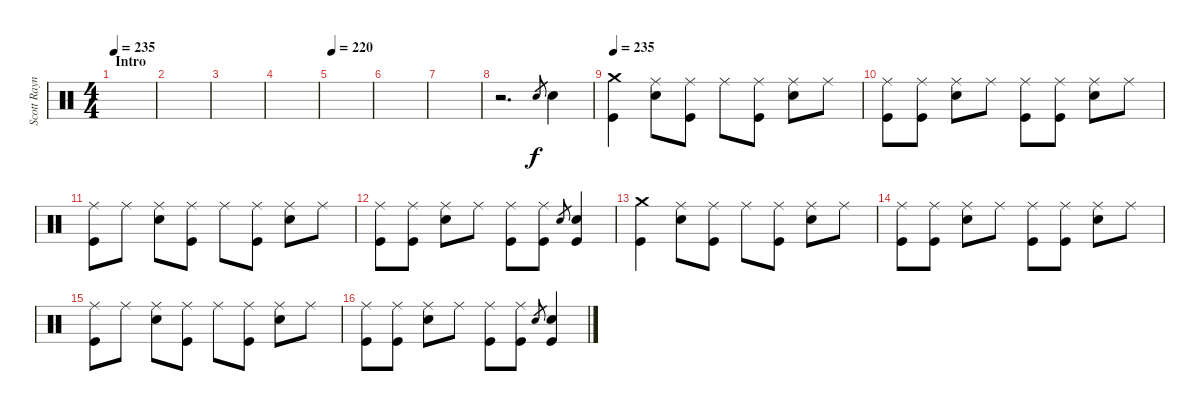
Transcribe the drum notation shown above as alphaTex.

\track ("Scott Raynor - Drums/Bateria" "Scott Rayn") {instrument percussion}
\staff {score}
\articulation defaults
\ts (4 4)
\section ("" "Intro")
\tempo 235
\tempo 220
\tempo 235
\clef neutral
\ks c
|
|
|
|
\tempo 220
|
|
|
r.2{d} "Snare (hit) 2"{sl}.8{gr} "Electric Snare (hit)".4 |
\tempo 235
("Crash medium (hit)" "Kick (hit)").4 ("Ride (middle)" "Electric Snare (hit)").8 ("Ride (middle)" "Kick (hit)").8 "Ride (middle)".8 ("Ride (middle)" "Kick (hit)").8 ("Ride (middle)" "Electric Snare (hit)").8 "Ride (middle)".8 |
("Ride (middle)" "Kick (hit)").8 ("Ride (middle)" "Kick (hit)").8 ("Ride (middle)" "Electric Snare (hit)").8 "Ride (middle)".8 ("Ride (middle)" "Kick (hit)").8 ("Ride (middle)" "Kick (hit)").8 ("Ride (middle)" "Electric Snare (hit)").8 "Ride (middle)".8 |
("Ride (middle)" "Kick (hit)").8 "Ride (middle)".8 ("Ride (middle)" "Electric Snare (hit)").8 ("Ride (middle)" "Kick (hit)").8 "Ride (middle)".8 ("Ride (middle)" "Kick (hit)").8 ("Ride (middle)" "Electric Snare (hit)").8 "Ride (middle)".8 |
("Ride (middle)" "Kick (hit)").8 ("Ride (middle)" "Kick (hit)").8 ("Ride (middle)" "Electric Snare (hit)").8 "Ride (middle)".8 ("Ride (middle)" "Kick (hit)").8 ("Ride (middle)" "Kick (hit)").8 "Electric Snare (hit)".8{gr} ("Electric Snare (hit)" "Kick (hit)").4 |
("Crash medium (hit)" "Kick (hit)").4 ("Ride (middle)" "Electric Snare (hit)").8 ("Ride (middle)" "Kick (hit)").8 "Ride (middle)".8 ("Ride (middle)" "Kick (hit)").8 ("Ride (middle)" "Electric Snare (hit)").8 "Ride (middle)".8 |
("Ride (middle)" "Kick (hit)").8 ("Ride (middle)" "Kick (hit)").8 ("Ride (middle)" "Electric Snare (hit)").8 "Ride (middle)".8 ("Ride (middle)" "Kick (hit)").8 ("Ride (middle)" "Kick (hit)").8 ("Ride (middle)" "Electric Snare (hit)").8 "Ride (middle)".8 |
("Ride (middle)" "Kick (hit)").8 "Ride (middle)".8 ("Ride (middle)" "Electric Snare (hit)").8 ("Ride (middle)" "Kick (hit)").8 "Ride (middle)".8 ("Ride (middle)" "Kick (hit)").8 ("Ride (middle)" "Electric Snare (hit)").8 "Ride (middle)".8 |
("Ride (middle)" "Kick (hit)").8 ("Ride (middle)" "Kick (hit)").8 ("Ride (middle)" "Electric Snare (hit)").8 "Ride (middle)".8 ("Ride (middle)" "Kick (hit)").8 ("Ride (middle)" "Kick (hit)").8 "Electric Snare (hit)".8{gr} ("Electric Snare (hit)" "Kick (hit)").4
